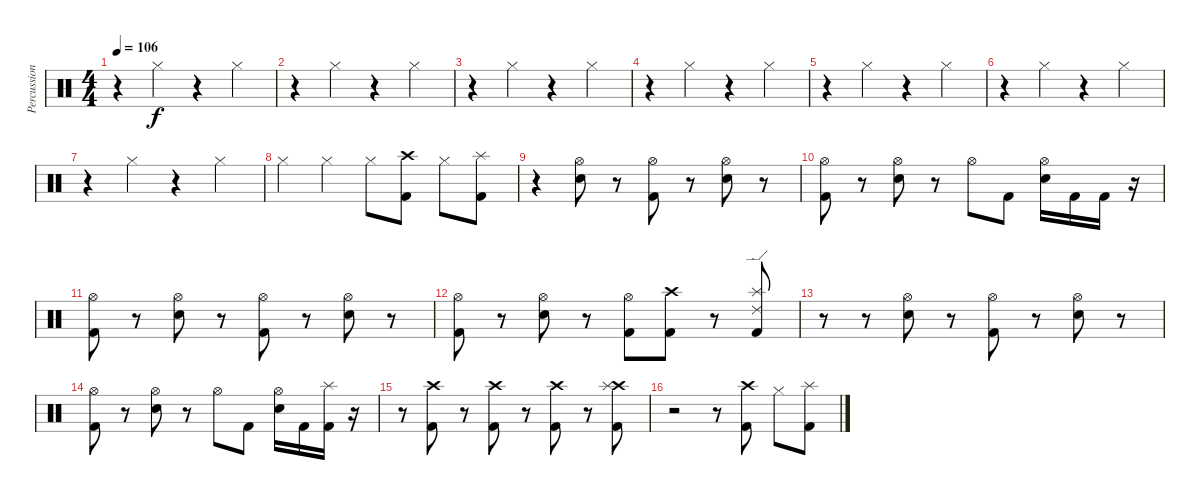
\track ("Percussion" "Percussion") {instrument percussion}
\staff {score}
\articulation defaults
\ts (4 4)
\tempo 106
\clef neutral
\ks c
r.4{dy f} "Hi-Hat (closed)".4 r.4 "Hi-Hat (closed)".4 |
r.4 "Hi-Hat (closed)".4 r.4 "Hi-Hat (closed)".4 |
r.4 "Hi-Hat (closed)".4 r.4 "Hi-Hat (closed)".4 |
r.4 "Hi-Hat (closed)".4 r.4 "Hi-Hat (closed)".4 |
r.4 "Hi-Hat (closed)".4 r.4 "Hi-Hat (closed)".4 |
r.4 "Hi-Hat (closed)".4 r.4 "Hi-Hat (closed)".4 |
r.4 "Hi-Hat (closed)".4 r.4 "Hi-Hat (closed)".4 |
"Hi-Hat (closed)".4 "Hi-Hat (closed)".4 "Hi-Hat (closed)".8 ("Crash high (hit)" "Kick (hit) 2").8 "Hi-Hat (closed)".8 ("Splash (hit)" "Kick (hit) 2").8 |
r.4 ("Hi-Hat (open)" "Snare (hit) 2").8 r.8 ("Hi-Hat (open)" "Kick (hit) 2").8 r.8 ("Hi-Hat (open)" "Snare (hit) 2").8 r.8 |
("Hi-Hat (open)" "Kick (hit) 2").8 r.8 ("Hi-Hat (open)" "Snare (hit) 2").8 r.8 "Hi-Hat (open)".8 "Kick (hit) 2".8 ("Hi-Hat (open)" "Snare (hit) 2").16 "Kick (hit) 2".16 "Kick (hit) 2".16 r.16 |
("Hi-Hat (open)" "Kick (hit) 2").8 r.8 ("Hi-Hat (open)" "Snare (hit) 2").8 r.8 ("Hi-Hat (open)" "Kick (hit) 2").8 r.8 ("Hi-Hat (open)" "Snare (hit) 2").8 r.8 |
("Hi-Hat (open)" "Kick (hit) 2").8 r.8 ("Hi-Hat (open)" "Snare (hit) 2").8 r.8 ("Hi-Hat (open)" "Kick (hit) 2").8 ("Crash high (hit)" "Kick (hit) 2").8 r.8 ("Ride (edge) 2" "Splash (hit)" "Kick (hit) 2").8 |
r.8 r.8 ("Hi-Hat (open)" "Snare (hit) 2").8 r.8 ("Hi-Hat (open)" "Kick (hit) 2").8 r.8 ("Hi-Hat (open)" "Snare (hit) 2").8 r.8 |
("Hi-Hat (open)" "Kick (hit) 2").8 r.8 ("Hi-Hat (open)" "Snare (hit) 2").8 r.8 "Hi-Hat (open)".8 "Kick (hit) 2".8 ("Hi-Hat (open)" "Snare (hit) 2").16 "Kick (hit) 2".16 ("Splash (hit)" "Kick (hit) 2").16 r.16 |
r.8 ("Crash high (hit)" "Kick (hit) 2").8 r.8 ("Crash high (hit)" "Kick (hit) 2").8 r.8 ("Crash high (hit)" "Kick (hit) 2").8 r.8 ("Crash high (hit)" "Splash (hit)" "Kick (hit) 2").8 |
r.2 r.8 ("Crash high (hit)" "Kick (hit) 2").8 "Hi-Hat (closed)".8 ("Splash (hit)" "Kick (hit) 2").8
